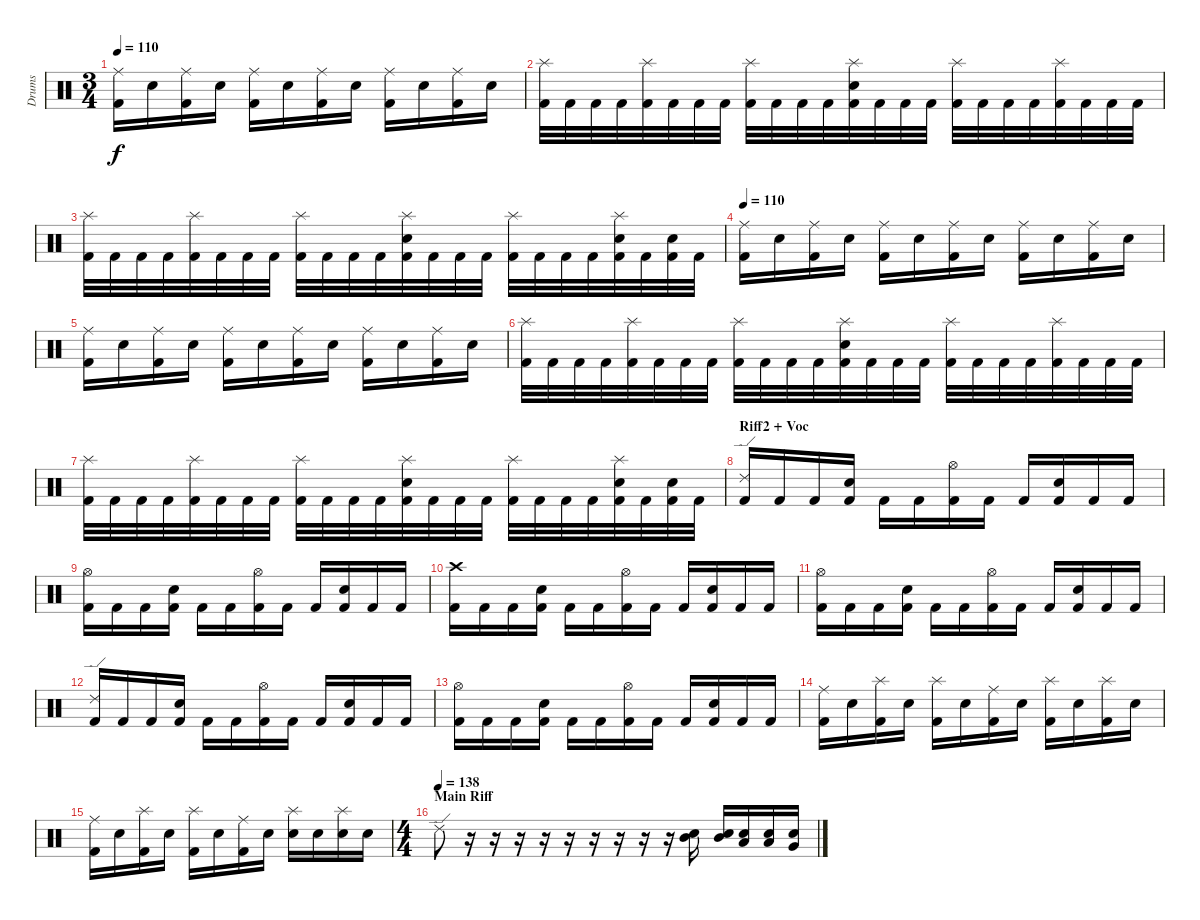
\track ("Drums" "Drums") {instrument percussion}
\staff {score}
\articulation defaults
\ts (3 4)
\tempo 110
\clef neutral
\ks c
("Ride (middle)" "Kick (hit) 2").16{dy f} "Snare (hit) 2".16 ("Ride (middle)" "Kick (hit) 2").16 "Snare (hit) 2".16 ("Ride (middle)" "Kick (hit) 2").16 "Snare (hit) 2".16 ("Ride (middle)" "Kick (hit) 2").16 "Snare (hit) 2".16 ("Ride (middle)" "Kick (hit) 2").16 "Snare (hit) 2".16 ("Ride (middle)" "Kick (hit) 2").16 "Snare (hit) 2".16 |
("Splash (hit)" "Kick (hit) 2").32 "Kick (hit) 2".32 "Kick (hit) 2".32 "Kick (hit) 2".32 ("Splash (hit)" "Kick (hit) 2").32 "Kick (hit) 2".32 "Kick (hit) 2".32 "Kick (hit) 2".32 ("Splash (hit)" "Kick (hit) 2").32 "Kick (hit) 2".32 "Kick (hit) 2".32 "Kick (hit) 2".32 ("Splash (hit)" "Kick (hit) 2" "Snare (hit) 2").32 "Kick (hit) 2".32 "Kick (hit) 2".32 "Kick (hit) 2".32 ("Splash (hit)" "Kick (hit) 2").32 "Kick (hit) 2".32 "Kick (hit) 2".32 "Kick (hit) 2".32 ("Splash (hit)" "Kick (hit) 2").32 "Kick (hit) 2".32 "Kick (hit) 2".32 "Kick (hit) 2".32 |
("Splash (hit)" "Kick (hit) 2").32 "Kick (hit) 2".32 "Kick (hit) 2".32 "Kick (hit) 2".32 ("Splash (hit)" "Kick (hit) 2").32 "Kick (hit) 2".32 "Kick (hit) 2".32 "Kick (hit) 2".32 ("Splash (hit)" "Kick (hit) 2").32 "Kick (hit) 2".32 "Kick (hit) 2".32 "Kick (hit) 2".32 ("Splash (hit)" "Kick (hit) 2" "Snare (hit) 2").32 "Kick (hit) 2".32 "Kick (hit) 2".32 "Kick (hit) 2".32 ("Splash (hit)" "Kick (hit) 2").32 "Kick (hit) 2".32 "Kick (hit) 2".32 "Kick (hit) 2".32 ("Splash (hit)" "Kick (hit) 2" "Snare (hit) 2").32 "Kick (hit) 2".32 ("Kick (hit) 2" "Snare (hit) 2").32 "Kick (hit) 2".32 |
\tempo 110
("Ride (middle)" "Kick (hit) 2").16 "Snare (hit) 2".16 ("Ride (middle)" "Kick (hit) 2").16 "Snare (hit) 2".16 ("Ride (middle)" "Kick (hit) 2").16 "Snare (hit) 2".16 ("Ride (middle)" "Kick (hit) 2").16 "Snare (hit) 2".16 ("Ride (middle)" "Kick (hit) 2").16 "Snare (hit) 2".16 ("Ride (middle)" "Kick (hit) 2").16 "Snare (hit) 2".16 |
("Ride (middle)" "Kick (hit) 2").16 "Snare (hit) 2".16 ("Ride (middle)" "Kick (hit) 2").16 "Snare (hit) 2".16 ("Ride (middle)" "Kick (hit) 2").16 "Snare (hit) 2".16 ("Ride (middle)" "Kick (hit) 2").16 "Snare (hit) 2".16 ("Ride (middle)" "Kick (hit) 2").16 "Snare (hit) 2".16 ("Ride (middle)" "Kick (hit) 2").16 "Snare (hit) 2".16 |
("Splash (hit)" "Kick (hit) 2").32 "Kick (hit) 2".32 "Kick (hit) 2".32 "Kick (hit) 2".32 ("Splash (hit)" "Kick (hit) 2").32 "Kick (hit) 2".32 "Kick (hit) 2".32 "Kick (hit) 2".32 ("Splash (hit)" "Kick (hit) 2").32 "Kick (hit) 2".32 "Kick (hit) 2".32 "Kick (hit) 2".32 ("Splash (hit)" "Kick (hit) 2" "Snare (hit) 2").32 "Kick (hit) 2".32 "Kick (hit) 2".32 "Kick (hit) 2".32 ("Splash (hit)" "Kick (hit) 2").32 "Kick (hit) 2".32 "Kick (hit) 2".32 "Kick (hit) 2".32 ("Splash (hit)" "Kick (hit) 2").32 "Kick (hit) 2".32 "Kick (hit) 2".32 "Kick (hit) 2".32 |
("Splash (hit)" "Kick (hit) 2").32 "Kick (hit) 2".32 "Kick (hit) 2".32 "Kick (hit) 2".32 ("Splash (hit)" "Kick (hit) 2").32 "Kick (hit) 2".32 "Kick (hit) 2".32 "Kick (hit) 2".32 ("Splash (hit)" "Kick (hit) 2").32 "Kick (hit) 2".32 "Kick (hit) 2".32 "Kick (hit) 2".32 ("Splash (hit)" "Kick (hit) 2" "Snare (hit) 2").32 "Kick (hit) 2".32 "Kick (hit) 2".32 "Kick (hit) 2".32 ("Splash (hit)" "Kick (hit) 2").32 "Kick (hit) 2".32 "Kick (hit) 2".32 "Kick (hit) 2".32 ("Splash (hit)" "Kick (hit) 2" "Snare (hit) 2").32 "Kick (hit) 2".32 ("Kick (hit) 2" "Snare (hit) 2").32 "Kick (hit) 2".32 |
\section ("" "Riff2 + Voc")
("Ride (edge) 2" "Kick (hit) 2").16 "Kick (hit) 2".16 "Kick (hit) 2".16 ("Snare (hit) 2" "Kick (hit) 2").16 "Kick (hit) 2".16 "Kick (hit) 2".16 ("Hi-Hat (open)" "Kick (hit) 2").16 "Kick (hit) 2".16 "Kick (hit) 2".16 ("Snare (hit) 2" "Kick (hit) 2").16 "Kick (hit) 2".16 "Kick (hit) 2".16 |
("Hi-Hat (open)" "Kick (hit) 2").16 "Kick (hit) 2".16 "Kick (hit) 2".16 ("Snare (hit) 2" "Kick (hit) 2").16 "Kick (hit) 2".16 "Kick (hit) 2".16 ("Hi-Hat (open)" "Kick (hit) 2").16 "Kick (hit) 2".16 "Kick (hit) 2".16 ("Snare (hit) 2" "Kick (hit) 2").16 "Kick (hit) 2".16 "Kick (hit) 2".16 |
("Crash high (hit)" "Kick (hit) 2").16 "Kick (hit) 2".16 "Kick (hit) 2".16 ("Snare (hit) 2" "Kick (hit) 2").16 "Kick (hit) 2".16 "Kick (hit) 2".16 ("Hi-Hat (open)" "Kick (hit) 2").16 "Kick (hit) 2".16 "Kick (hit) 2".16 ("Snare (hit) 2" "Kick (hit) 2").16 "Kick (hit) 2".16 "Kick (hit) 2".16 |
("Hi-Hat (open)" "Kick (hit) 2").16 "Kick (hit) 2".16 "Kick (hit) 2".16 ("Snare (hit) 2" "Kick (hit) 2").16 "Kick (hit) 2".16 "Kick (hit) 2".16 ("Hi-Hat (open)" "Kick (hit) 2").16 "Kick (hit) 2".16 "Kick (hit) 2".16 ("Snare (hit) 2" "Kick (hit) 2").16 "Kick (hit) 2".16 "Kick (hit) 2".16 |
("Ride (edge) 2" "Kick (hit) 2").16 "Kick (hit) 2".16 "Kick (hit) 2".16 ("Snare (hit) 2" "Kick (hit) 2").16 "Kick (hit) 2".16 "Kick (hit) 2".16 ("Hi-Hat (open)" "Kick (hit) 2").16 "Kick (hit) 2".16 "Kick (hit) 2".16 ("Snare (hit) 2" "Kick (hit) 2").16 "Kick (hit) 2".16 "Kick (hit) 2".16 |
("Hi-Hat (open)" "Kick (hit) 2").16 "Kick (hit) 2".16 "Kick (hit) 2".16 ("Snare (hit) 2" "Kick (hit) 2").16 "Kick (hit) 2".16 "Kick (hit) 2".16 ("Hi-Hat (open)" "Kick (hit) 2").16 "Kick (hit) 2".16 "Kick (hit) 2".16 ("Snare (hit) 2" "Kick (hit) 2").16 "Kick (hit) 2".16 "Kick (hit) 2".16 |
("Ride (middle)" "Kick (hit) 2").16 "Snare (hit) 2".16 ("Splash (hit)" "Kick (hit) 2").16 "Snare (hit) 2".16 ("Splash (hit)" "Kick (hit) 2").16 "Snare (hit) 2".16 ("Ride (middle)" "Kick (hit) 2").16 "Snare (hit) 2".16 ("Splash (hit)" "Kick (hit) 2").16 "Snare (hit) 2".16 ("Splash (hit)" "Kick (hit) 2").16 "Snare (hit) 2".16 |
("Ride (middle)" "Kick (hit) 2").16 "Snare (hit) 2".16 ("Splash (hit)" "Kick (hit) 2").16 "Snare (hit) 2".16 ("Splash (hit)" "Kick (hit) 2").16 "Snare (hit) 2".16 ("Ride (middle)" "Kick (hit) 2").16 "Snare (hit) 2".16 ("Splash (hit)" "Snare (hit) 2").16 "Snare (hit) 2".16 ("Splash (hit)" "Snare (hit) 2").16 "Snare (hit) 2".16 |
\ts (4 4)
\section ("" "Main Riff")
\tempo (138)
"Ride (edge) 2".8 r.16 r.16 r.16 r.16 r.16 r.16 r.16 r.16 r.16 ("Snare (hit) 2" "Mid Tom (hit)").16 ("Snare (hit) 2" "Mid Tom (hit)").16 ("Snare (hit) 2" "Low Tom (hit)").16 ("Snare (hit) 2" "Low Tom (hit)").16 ("Snare (hit) 2" "Very Low Tom (hit)").16
